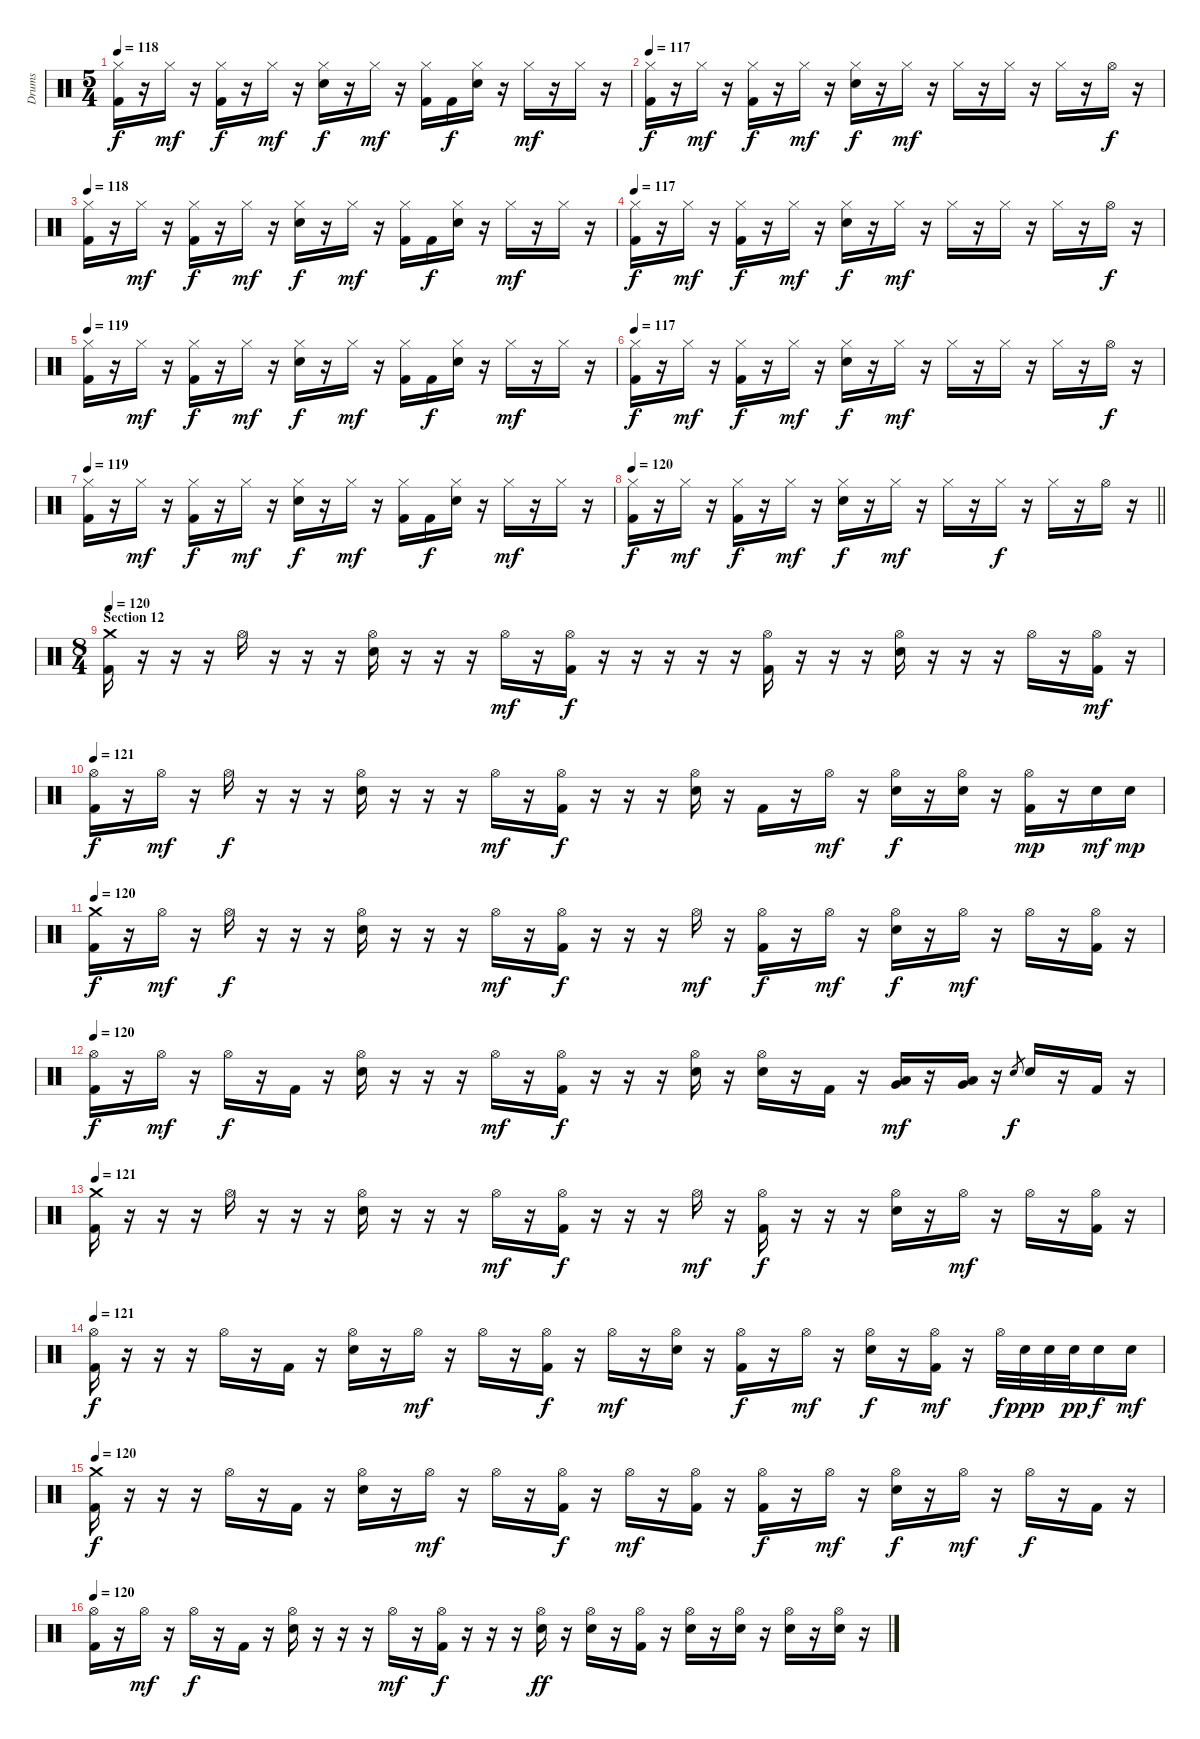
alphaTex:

\track ("Drums" "Drums") {instrument percussion}
\staff {score}
\articulation defaults
\ts (5 4)
\tempo 118
\clef neutral
\ks c
("Hi-Hat (closed)" "Kick (hit) 2").16{dy f} r.16 "Hi-Hat (closed)".16{dy mf} r.16 ("Hi-Hat (closed)" "Kick (hit) 2").16{dy f} r.16 "Hi-Hat (closed)".16{dy mf} r.16 ("Hi-Hat (closed)" "Electric Snare (hit)").16{dy f} r.16 "Hi-Hat (closed)".16{dy mf} r.16 ("Hi-Hat (closed)" "Kick (hit) 2").16 "Kick (hit) 2".16{dy f} ("Hi-Hat (closed)" "Electric Snare (hit)").16 r.16 "Hi-Hat (closed)".16{dy mf} r.16 "Hi-Hat (closed)".16 r.16 |
\tempo 117
("Hi-Hat (closed)" "Kick (hit) 2").16{dy f} r.16 "Hi-Hat (closed)".16{dy mf} r.16 ("Hi-Hat (closed)" "Kick (hit) 2").16{dy f} r.16 "Hi-Hat (closed)".16{dy mf} r.16 ("Hi-Hat (closed)" "Electric Snare (hit)").16{dy f} r.16 "Hi-Hat (closed)".16{dy mf} r.16 "Hi-Hat (closed)".16 r.16 "Hi-Hat (closed)".16 r.16 "Hi-Hat (closed)".16 r.16 "Hi-Hat (open)".16{dy f} r.16 |
\tempo 118
("Hi-Hat (closed)" "Kick (hit) 2").16 r.16 "Hi-Hat (closed)".16{dy mf} r.16 ("Hi-Hat (closed)" "Kick (hit) 2").16{dy f} r.16 "Hi-Hat (closed)".16{dy mf} r.16 ("Hi-Hat (closed)" "Electric Snare (hit)").16{dy f} r.16 "Hi-Hat (closed)".16{dy mf} r.16 ("Hi-Hat (closed)" "Kick (hit) 2").16 "Kick (hit) 2".16{dy f} ("Hi-Hat (closed)" "Electric Snare (hit)").16 r.16 "Hi-Hat (closed)".16{dy mf} r.16 "Hi-Hat (closed)".16 r.16 |
\tempo 117
("Hi-Hat (closed)" "Kick (hit) 2").16{dy f} r.16 "Hi-Hat (closed)".16{dy mf} r.16 ("Hi-Hat (closed)" "Kick (hit) 2").16{dy f} r.16 "Hi-Hat (closed)".16{dy mf} r.16 ("Hi-Hat (closed)" "Electric Snare (hit)").16{dy f} r.16 "Hi-Hat (closed)".16{dy mf} r.16 "Hi-Hat (closed)".16 r.16 "Hi-Hat (closed)".16 r.16 "Hi-Hat (closed)".16 r.16 "Hi-Hat (open)".16{dy f} r.16 |
\tempo 119
("Hi-Hat (closed)" "Kick (hit) 2").16 r.16 "Hi-Hat (closed)".16{dy mf} r.16 ("Hi-Hat (closed)" "Kick (hit) 2").16{dy f} r.16 "Hi-Hat (closed)".16{dy mf} r.16 ("Hi-Hat (closed)" "Electric Snare (hit)").16{dy f} r.16 "Hi-Hat (closed)".16{dy mf} r.16 ("Hi-Hat (closed)" "Kick (hit) 2").16 "Kick (hit) 2".16{dy f} ("Hi-Hat (closed)" "Electric Snare (hit)").16 r.16 "Hi-Hat (closed)".16{dy mf} r.16 "Hi-Hat (closed)".16 r.16 |
\tempo 117
("Hi-Hat (closed)" "Kick (hit) 2").16{dy f} r.16 "Hi-Hat (closed)".16{dy mf} r.16 ("Hi-Hat (closed)" "Kick (hit) 2").16{dy f} r.16 "Hi-Hat (closed)".16{dy mf} r.16 ("Hi-Hat (closed)" "Electric Snare (hit)").16{dy f} r.16 "Hi-Hat (closed)".16{dy mf} r.16 "Hi-Hat (closed)".16 r.16 "Hi-Hat (closed)".16 r.16 "Hi-Hat (closed)".16 r.16 "Hi-Hat (open)".16{dy f} r.16 |
\tempo 119
("Hi-Hat (closed)" "Kick (hit) 2").16 r.16 "Hi-Hat (closed)".16{dy mf} r.16 ("Hi-Hat (closed)" "Kick (hit) 2").16{dy f} r.16 "Hi-Hat (closed)".16{dy mf} r.16 ("Hi-Hat (closed)" "Electric Snare (hit)").16{dy f} r.16 "Hi-Hat (closed)".16{dy mf} r.16 ("Hi-Hat (closed)" "Kick (hit) 2").16 "Kick (hit) 2".16{dy f} ("Hi-Hat (closed)" "Electric Snare (hit)").16 r.16 "Hi-Hat (closed)".16{dy mf} r.16 "Hi-Hat (closed)".16 r.16 |
\tempo 120
\barLineRight lightlight
("Hi-Hat (closed)" "Kick (hit) 2").16{dy f} r.16 "Hi-Hat (closed)".16{dy mf} r.16 ("Hi-Hat (closed)" "Kick (hit) 2").16{dy f} r.16 "Hi-Hat (closed)".16{dy mf} r.16 ("Hi-Hat (closed)" "Electric Snare (hit)").16{dy f} r.16 "Hi-Hat (closed)".16{dy mf} r.16 "Hi-Hat (closed)".16 r.16 "Hi-Hat (closed)".16{dy f} r.16 "Hi-Hat (closed)".16 r.16 "Hi-Hat (open)".16 r.16 |
\ts (8 4)
\section ("" "Section 12")
\tempo 120
("Crash medium (hit)" "Kick (hit) 2").16 r.16 r.16 r.16 "Hi-Hat (open)".16 r.16 r.16 r.16 ("Hi-Hat (open)" "Electric Snare (hit)").16 r.16 r.16 r.16 "Hi-Hat (open)".16{dy mf} r.16 ("Hi-Hat (open)" "Kick (hit) 2").16{dy f} r.16 r.16 r.16 r.16 r.16 ("Hi-Hat (open)" "Kick (hit) 2").16 r.16 r.16 r.16 ("Hi-Hat (open)" "Electric Snare (hit)").16 r.16 r.16 r.16 "Hi-Hat (open)".16 r.16 ("Hi-Hat (open)" "Kick (hit) 2").16{dy mf} r.16 |
\tempo 121
("Hi-Hat (open)" "Kick (hit) 2").16{dy f} r.16 "Hi-Hat (open)".16{dy mf} r.16 "Hi-Hat (open)".16{dy f} r.16 r.16 r.16 ("Hi-Hat (open)" "Electric Snare (hit)").16 r.16 r.16 r.16 "Hi-Hat (open)".16{dy mf} r.16 ("Hi-Hat (open)" "Kick (hit) 2").16{dy f} r.16 r.16 r.16 ("Hi-Hat (open)" "Electric Snare (hit)").16 r.16 "Kick (hit) 2".16 r.16 "Hi-Hat (open)".16{dy mf} r.16 ("Hi-Hat (open)" "Electric Snare (hit)").16{dy f} r.16 ("Hi-Hat (open)" "Electric Snare (hit)").16 r.16 ("Hi-Hat (open)" "Kick (hit) 2").16{dy mp} r.16 "Electric Snare (hit)".16{dy mf} "Electric Snare (hit)".16{dy mp} |
\tempo 120
("Crash medium (hit)" "Kick (hit) 2").16{dy f} r.16 "Hi-Hat (open)".16{dy mf} r.16 "Hi-Hat (open)".16{dy f} r.16 r.16 r.16 ("Hi-Hat (open)" "Electric Snare (hit)").16 r.16 r.16 r.16 "Hi-Hat (open)".16{dy mf} r.16 ("Hi-Hat (open)" "Kick (hit) 2").16{dy f} r.16 r.16 r.16 "Hi-Hat (open)".16{dy mf} r.16 ("Hi-Hat (open)" "Kick (hit) 2").16{dy f} r.16 "Hi-Hat (open)".16{dy mf} r.16 ("Hi-Hat (open)" "Electric Snare (hit)").16{dy f} r.16 "Hi-Hat (open)".16{dy mf} r.16 "Hi-Hat (open)".16 r.16 ("Hi-Hat (open)" "Kick (hit) 2").16 r.16 |
\tempo 120
("Hi-Hat (open)" "Kick (hit) 2").16{dy f} r.16 "Hi-Hat (open)".16{dy mf} r.16 "Hi-Hat (open)".16{dy f} r.16 "Kick (hit) 2".16 r.16 ("Hi-Hat (open)" "Electric Snare (hit)").16 r.16 r.16 r.16 "Hi-Hat (open)".16{dy mf} r.16 ("Hi-Hat (open)" "Kick (hit) 2").16{dy f} r.16 r.16 r.16 ("Hi-Hat (open)" "Electric Snare (hit)").16 r.16 ("Hi-Hat (open)" "Electric Snare (hit)").16 r.16 "Kick (hit) 2".16 r.16 ("Low Tom (hit)" "Very Low Tom (hit)").16{dy mf} r.16 ("Low Tom (hit)" "Very Low Tom (hit)").16 r.16 "Electric Snare (hit)".8{gr dy f} "Electric Snare (hit)".16 r.16 "Kick (hit) 2".16 r.16 |
\tempo 121
("Crash medium (hit)" "Kick (hit) 2").16 r.16 r.16 r.16 "Hi-Hat (open)".16 r.16 r.16 r.16 ("Hi-Hat (open)" "Electric Snare (hit)").16 r.16 r.16 r.16 "Hi-Hat (open)".16{dy mf} r.16 ("Hi-Hat (open)" "Kick (hit) 2").16{dy f} r.16 r.16 r.16 "Hi-Hat (open)".16{dy mf} r.16 ("Hi-Hat (open)" "Kick (hit) 2").16{dy f} r.16 r.16 r.16 ("Hi-Hat (open)" "Electric Snare (hit)").16 r.16 "Hi-Hat (open)".16{dy mf} r.16 "Hi-Hat (open)".16 r.16 ("Hi-Hat (open)" "Kick (hit) 2").16 r.16 |
\tempo 121
("Hi-Hat (open)" "Kick (hit) 2").16{dy f} r.16 r.16 r.16 "Hi-Hat (open)".16 r.16 "Kick (hit) 2".16 r.16 ("Hi-Hat (open)" "Electric Snare (hit)").16 r.16 "Hi-Hat (open)".16{dy mf} r.16 "Hi-Hat (open)".16 r.16 ("Hi-Hat (open)" "Kick (hit) 2").16{dy f} r.16 "Hi-Hat (open)".16{dy mf} r.16 ("Hi-Hat (open)" "Electric Snare (hit)").16 r.16 ("Hi-Hat (open)" "Kick (hit) 2").16{dy f} r.16 "Hi-Hat (open)".16{dy mf} r.16 ("Hi-Hat (open)" "Electric Snare (hit)").16{dy f} r.16 ("Hi-Hat (open)" "Kick (hit) 2").16{dy mf} r.16 "Hi-Hat (open)".32{dy f} "Electric Snare (hit)".32{dy ppp} "Electric Snare (hit)".32 "Electric Snare (hit)".32{dy pp} "Electric Snare (hit)".16{dy f} "Electric Snare (hit)".16{dy mf} |
\tempo 120
("Crash medium (hit)" "Kick (hit) 2").16{dy f} r.16 r.16 r.16 "Hi-Hat (open)".16 r.16 "Kick (hit) 2".16 r.16 ("Hi-Hat (open)" "Electric Snare (hit)").16 r.16 "Hi-Hat (open)".16{dy mf} r.16 "Hi-Hat (open)".16 r.16 ("Hi-Hat (open)" "Kick (hit) 2").16{dy f} r.16 "Hi-Hat (open)".16{dy mf} r.16 ("Hi-Hat (open)" "Kick (hit) 2").16 r.16 ("Hi-Hat (open)" "Kick (hit) 2").16{dy f} r.16 "Hi-Hat (open)".16{dy mf} r.16 ("Hi-Hat (open)" "Electric Snare (hit)").16{dy f} r.16 "Hi-Hat (open)".16{dy mf} r.16 "Hi-Hat (open)".16{dy f} r.16 "Kick (hit) 2".16 r.16 |
\tempo 120
("Hi-Hat (open)" "Kick (hit) 2").16 r.16 "Hi-Hat (open)".16{dy mf} r.16 "Hi-Hat (open)".16{dy f} r.16 "Kick (hit) 2".16 r.16 ("Hi-Hat (open)" "Electric Snare (hit)").16 r.16 r.16 r.16 "Hi-Hat (open)".16{dy mf} r.16 ("Hi-Hat (open)" "Kick (hit) 2").16{dy f} r.16 r.16 r.16 ("Hi-Hat (open)" "Electric Snare (hit)").16{dy ff} r.16 ("Hi-Hat (open)" "Electric Snare (hit)").16 r.16 ("Hi-Hat (open)" "Kick (hit) 2").16 r.16 ("Hi-Hat (open)" "Electric Snare (hit)").16 r.16 ("Hi-Hat (open)" "Electric Snare (hit)").16 r.16 ("Hi-Hat (open)" "Electric Snare (hit)").16 r.16 ("Hi-Hat (open)" "Electric Snare (hit)").16 r.16
